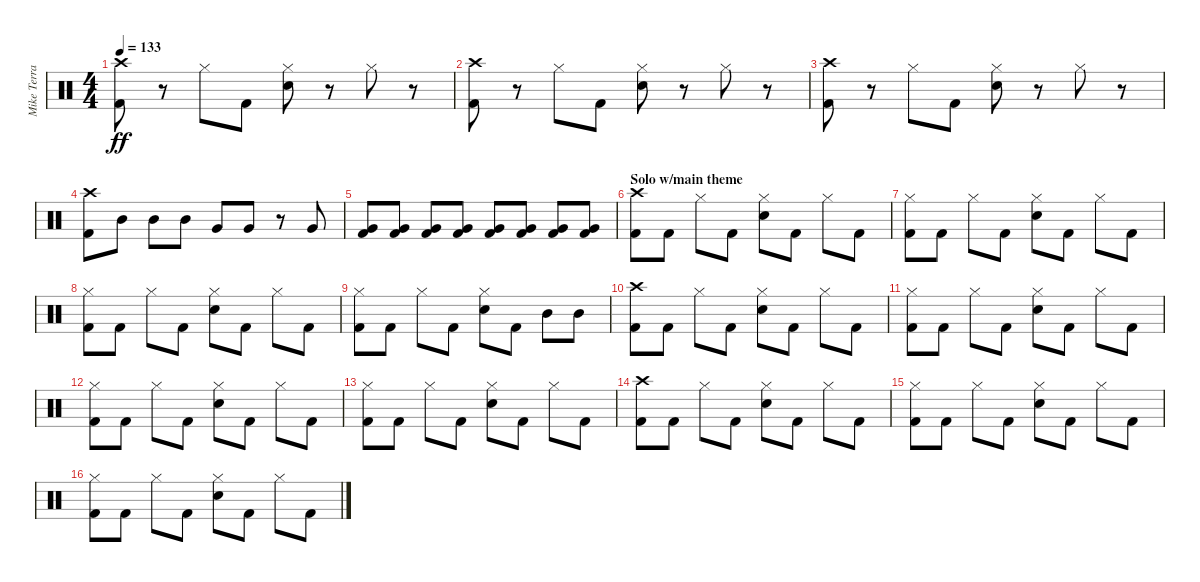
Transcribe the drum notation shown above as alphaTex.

\track ("Mike Terrana" "Mike Terra") {instrument percussion}
\staff {score}
\articulation defaults
\ts (4 4)
\tempo 133
\clef neutral
\ks c
("Crash high (hit)" "Kick (hit) 2").8{dy ff} r.8 "Hi-Hat (closed)".8 "Kick (hit) 2".8 ("Hi-Hat (closed)" "Snare (hit) 2").8 r.8 "Hi-Hat (closed)".8 r.8 |
("Crash high (hit)" "Kick (hit) 2").8 r.8 "Hi-Hat (closed)".8 "Kick (hit) 2".8 ("Hi-Hat (closed)" "Snare (hit) 2").8 r.8 "Hi-Hat (closed)".8 r.8 |
("Crash high (hit)" "Kick (hit) 2").8 r.8 "Hi-Hat (closed)".8 "Kick (hit) 2".8 ("Hi-Hat (closed)" "Snare (hit) 2").8 r.8 "Hi-Hat (closed)".8 r.8 |
("Crash high (hit)" "Kick (hit) 2").8 "Mid Tom (hit)".8 "Mid Tom (hit)".8 "Mid Tom (hit)".8 "Very Low Tom (hit)".8 "Very Low Tom (hit)".8 r.8 "Very Low Tom (hit)".8 |
("Very Low Tom (hit)" "Kick (hit) 2").8 ("Very Low Tom (hit)" "Kick (hit) 2").8 ("Very Low Tom (hit)" "Kick (hit) 2").8 ("Very Low Tom (hit)" "Kick (hit) 2").8 ("Very Low Tom (hit)" "Kick (hit) 2").8 ("Very Low Tom (hit)" "Kick (hit) 2").8 ("Very Low Tom (hit)" "Kick (hit) 2").8 ("Very Low Tom (hit)" "Kick (hit) 2").8 |
\section ("" "Solo w/main theme")
("Crash high (hit)" "Kick (hit) 2").8 "Kick (hit) 2".8 "Hi-Hat (closed)".8 "Kick (hit) 2".8 ("Hi-Hat (closed)" "Snare (hit) 2").8 "Kick (hit) 2".8 "Hi-Hat (closed)".8 "Kick (hit) 2".8 |
("Hi-Hat (closed)" "Kick (hit) 2").8 "Kick (hit) 2".8 "Hi-Hat (closed)".8 "Kick (hit) 2".8 ("Hi-Hat (closed)" "Snare (hit) 2").8 "Kick (hit) 2".8 "Hi-Hat (closed)".8 "Kick (hit) 2".8 |
("Hi-Hat (closed)" "Kick (hit) 2").8 "Kick (hit) 2".8 "Hi-Hat (closed)".8 "Kick (hit) 2".8 ("Hi-Hat (closed)" "Snare (hit) 2").8 "Kick (hit) 2".8 "Hi-Hat (closed)".8 "Kick (hit) 2".8 |
("Hi-Hat (closed)" "Kick (hit) 2").8 "Kick (hit) 2".8 "Hi-Hat (closed)".8 "Kick (hit) 2".8 ("Hi-Hat (closed)" "Snare (hit) 2").8 "Kick (hit) 2".8 "Mid Tom (hit)".8 "Mid Tom (hit)".8 |
("Crash high (hit)" "Kick (hit) 2").8 "Kick (hit) 2".8 "Hi-Hat (closed)".8 "Kick (hit) 2".8 ("Hi-Hat (closed)" "Snare (hit) 2").8 "Kick (hit) 2".8 "Hi-Hat (closed)".8 "Kick (hit) 2".8 |
("Hi-Hat (closed)" "Kick (hit) 2").8 "Kick (hit) 2".8 "Hi-Hat (closed)".8 "Kick (hit) 2".8 ("Hi-Hat (closed)" "Snare (hit) 2").8 "Kick (hit) 2".8 "Hi-Hat (closed)".8 "Kick (hit) 2".8 |
("Hi-Hat (closed)" "Kick (hit) 2").8 "Kick (hit) 2".8 "Hi-Hat (closed)".8 "Kick (hit) 2".8 ("Hi-Hat (closed)" "Snare (hit) 2").8 "Kick (hit) 2".8 "Hi-Hat (closed)".8 "Kick (hit) 2".8 |
("Hi-Hat (closed)" "Kick (hit) 2").8 "Kick (hit) 2".8 "Hi-Hat (closed)".8 "Kick (hit) 2".8 ("Hi-Hat (closed)" "Snare (hit) 2").8 "Kick (hit) 2".8 "Hi-Hat (closed)".8 "Kick (hit) 2".8 |
("Crash high (hit)" "Kick (hit) 2").8 "Kick (hit) 2".8 "Hi-Hat (closed)".8 "Kick (hit) 2".8 ("Hi-Hat (closed)" "Snare (hit) 2").8 "Kick (hit) 2".8 "Hi-Hat (closed)".8 "Kick (hit) 2".8 |
("Hi-Hat (closed)" "Kick (hit) 2").8 "Kick (hit) 2".8 "Hi-Hat (closed)".8 "Kick (hit) 2".8 ("Hi-Hat (closed)" "Snare (hit) 2").8 "Kick (hit) 2".8 "Hi-Hat (closed)".8 "Kick (hit) 2".8 |
("Hi-Hat (closed)" "Kick (hit) 2").8 "Kick (hit) 2".8 "Hi-Hat (closed)".8 "Kick (hit) 2".8 ("Hi-Hat (closed)" "Snare (hit) 2").8 "Kick (hit) 2".8 "Hi-Hat (closed)".8 "Kick (hit) 2".8
